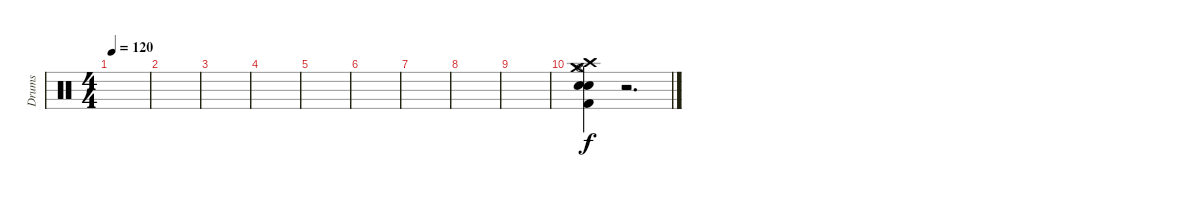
\track ("Drums" "Drums") {instrument percussion}
\staff {score}
\articulation defaults
\ts (4 4)
\tempo 120
\clef neutral
\ks c
|
|
|
|
|
|
|
|
|
("Hi-Hat (open)" "Crash high (hit)" "Crash medium (hit)" "Electric Snare (hit)" "Snare (hit) 2" "Kick (hit) 2").4 r.2{d}
